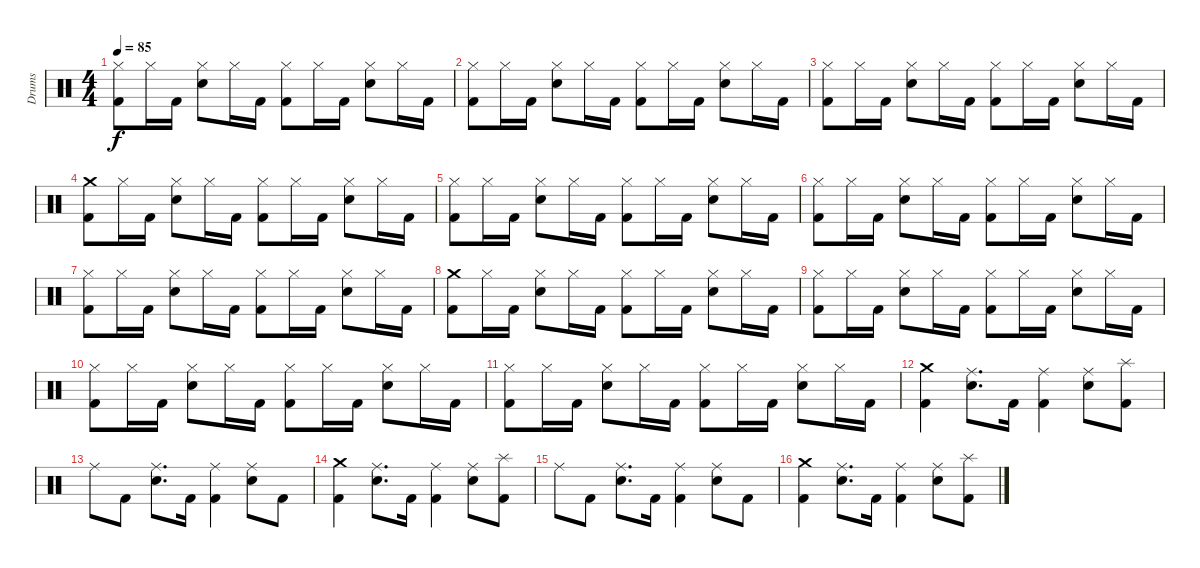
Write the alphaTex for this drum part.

\track ("Drums" "Drums") {instrument percussion}
\staff {score}
\articulation defaults
\ts (4 4)
\tempo 85
\clef neutral
\ks c
("Hi-Hat (closed)" "Kick (hit) 2").8{dy f} "Hi-Hat (closed)".16 "Kick (hit) 2".16 ("Hi-Hat (closed)" "Snare (hit) 2").8 "Hi-Hat (closed)".16 "Kick (hit) 2".16 ("Hi-Hat (closed)" "Kick (hit) 2").8 "Hi-Hat (closed)".16 "Kick (hit) 2".16 ("Hi-Hat (closed)" "Snare (hit) 2").8 "Hi-Hat (closed)".16 "Kick (hit) 2".16 |
("Hi-Hat (closed)" "Kick (hit) 2").8 "Hi-Hat (closed)".16 "Kick (hit) 2".16 ("Hi-Hat (closed)" "Snare (hit) 2").8 "Hi-Hat (closed)".16 "Kick (hit) 2".16 ("Hi-Hat (closed)" "Kick (hit) 2").8 "Hi-Hat (closed)".16 "Kick (hit) 2".16 ("Hi-Hat (closed)" "Snare (hit) 2").8 "Hi-Hat (closed)".16 "Kick (hit) 2".16 |
("Hi-Hat (closed)" "Kick (hit) 2").8 "Hi-Hat (closed)".16 "Kick (hit) 2".16 ("Hi-Hat (closed)" "Snare (hit) 2").8 "Hi-Hat (closed)".16 "Kick (hit) 2".16 ("Hi-Hat (closed)" "Kick (hit) 2").8 "Hi-Hat (closed)".16 "Kick (hit) 2".16 ("Hi-Hat (closed)" "Snare (hit) 2").8 "Hi-Hat (closed)".16 "Kick (hit) 2".16 |
("Crash medium (hit)" "Kick (hit) 2").8 "Hi-Hat (closed)".16 "Kick (hit) 2".16 ("Hi-Hat (closed)" "Snare (hit) 2").8 "Hi-Hat (closed)".16 "Kick (hit) 2".16 ("Hi-Hat (closed)" "Kick (hit) 2").8 "Hi-Hat (closed)".16 "Kick (hit) 2".16 ("Hi-Hat (closed)" "Snare (hit) 2").8 "Hi-Hat (closed)".16 "Kick (hit) 2".16 |
("Hi-Hat (closed)" "Kick (hit) 2").8 "Hi-Hat (closed)".16 "Kick (hit) 2".16 ("Hi-Hat (closed)" "Snare (hit) 2").8 "Hi-Hat (closed)".16 "Kick (hit) 2".16 ("Hi-Hat (closed)" "Kick (hit) 2").8 "Hi-Hat (closed)".16 "Kick (hit) 2".16 ("Hi-Hat (closed)" "Snare (hit) 2").8 "Hi-Hat (closed)".16 "Kick (hit) 2".16 |
("Hi-Hat (closed)" "Kick (hit) 2").8 "Hi-Hat (closed)".16 "Kick (hit) 2".16 ("Hi-Hat (closed)" "Snare (hit) 2").8 "Hi-Hat (closed)".16 "Kick (hit) 2".16 ("Hi-Hat (closed)" "Kick (hit) 2").8 "Hi-Hat (closed)".16 "Kick (hit) 2".16 ("Hi-Hat (closed)" "Snare (hit) 2").8 "Hi-Hat (closed)".16 "Kick (hit) 2".16 |
("Hi-Hat (closed)" "Kick (hit) 2").8 "Hi-Hat (closed)".16 "Kick (hit) 2".16 ("Hi-Hat (closed)" "Snare (hit) 2").8 "Hi-Hat (closed)".16 "Kick (hit) 2".16 ("Hi-Hat (closed)" "Kick (hit) 2").8 "Hi-Hat (closed)".16 "Kick (hit) 2".16 ("Hi-Hat (closed)" "Snare (hit) 2").8 "Hi-Hat (closed)".16 "Kick (hit) 2".16 |
("Crash medium (hit)" "Kick (hit) 2").8 "Hi-Hat (closed)".16 "Kick (hit) 2".16 ("Hi-Hat (closed)" "Snare (hit) 2").8 "Hi-Hat (closed)".16 "Kick (hit) 2".16 ("Hi-Hat (closed)" "Kick (hit) 2").8 "Hi-Hat (closed)".16 "Kick (hit) 2".16 ("Hi-Hat (closed)" "Snare (hit) 2").8 "Hi-Hat (closed)".16 "Kick (hit) 2".16 |
("Hi-Hat (closed)" "Kick (hit) 2").8 "Hi-Hat (closed)".16 "Kick (hit) 2".16 ("Hi-Hat (closed)" "Snare (hit) 2").8 "Hi-Hat (closed)".16 "Kick (hit) 2".16 ("Hi-Hat (closed)" "Kick (hit) 2").8 "Hi-Hat (closed)".16 "Kick (hit) 2".16 ("Hi-Hat (closed)" "Snare (hit) 2").8 "Hi-Hat (closed)".16 "Kick (hit) 2".16 |
("Hi-Hat (closed)" "Kick (hit) 2").8 "Hi-Hat (closed)".16 "Kick (hit) 2".16 ("Hi-Hat (closed)" "Snare (hit) 2").8 "Hi-Hat (closed)".16 "Kick (hit) 2".16 ("Hi-Hat (closed)" "Kick (hit) 2").8 "Hi-Hat (closed)".16 "Kick (hit) 2".16 ("Hi-Hat (closed)" "Snare (hit) 2").8 "Hi-Hat (closed)".16 "Kick (hit) 2".16 |
("Hi-Hat (closed)" "Kick (hit) 2").8 "Hi-Hat (closed)".16 "Kick (hit) 2".16 ("Hi-Hat (closed)" "Snare (hit) 2").8 "Hi-Hat (closed)".16 "Kick (hit) 2".16 ("Hi-Hat (closed)" "Kick (hit) 2").8 "Hi-Hat (closed)".16 "Kick (hit) 2".16 ("Hi-Hat (closed)" "Snare (hit) 2").8 "Hi-Hat (closed)".16 "Kick (hit) 2".16 |
("Crash medium (hit)" "Kick (hit) 2").4 ("Ride (middle)" "Snare (hit) 2").8{d} "Kick (hit) 2".16 ("Ride (middle)" "Kick (hit) 2").4 ("Ride (middle)" "Snare (hit) 2").8 ("Splash (hit)" "Kick (hit) 2").8 |
"Ride (middle)".8 "Kick (hit) 2".8 ("Ride (middle)" "Snare (hit) 2").8{d} "Kick (hit) 2".16 ("Ride (middle)" "Kick (hit) 2").4 ("Ride (middle)" "Snare (hit) 2").8 "Kick (hit) 2".8 |
("Crash medium (hit)" "Kick (hit) 2").4 ("Ride (middle)" "Snare (hit) 2").8{d} "Kick (hit) 2".16 ("Ride (middle)" "Kick (hit) 2").4 ("Ride (middle)" "Snare (hit) 2").8 ("Splash (hit)" "Kick (hit) 2").8 |
"Ride (middle)".8 "Kick (hit) 2".8 ("Ride (middle)" "Snare (hit) 2").8{d} "Kick (hit) 2".16 ("Ride (middle)" "Kick (hit) 2").4 ("Ride (middle)" "Snare (hit) 2").8 "Kick (hit) 2".8 |
("Crash medium (hit)" "Kick (hit) 2").4 ("Ride (middle)" "Snare (hit) 2").8{d} "Kick (hit) 2".16 ("Ride (middle)" "Kick (hit) 2").4 ("Ride (middle)" "Snare (hit) 2").8 ("Splash (hit)" "Kick (hit) 2").8
